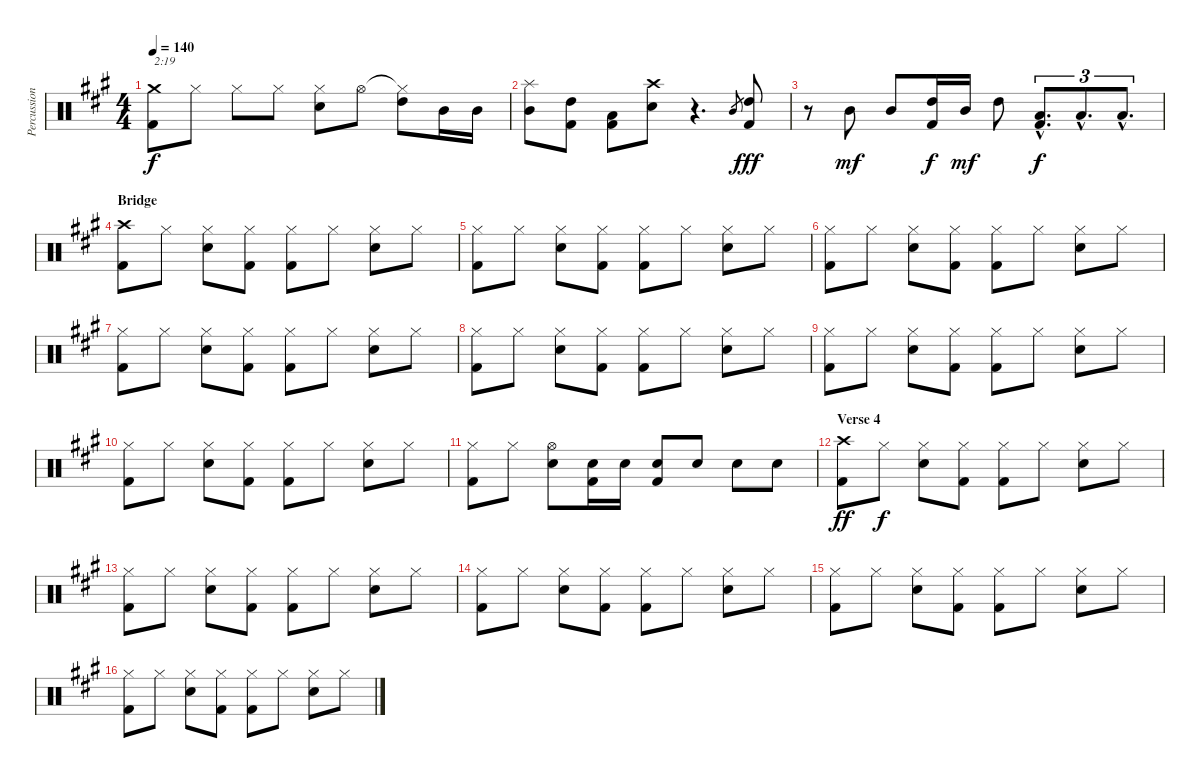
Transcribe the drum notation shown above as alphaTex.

\track ("Percussion" "Percussion") {instrument percussion}
\staff {score}
\articulation defaults
\ts (4 4)
\tempo 140
\clef neutral
\ks a
("Crash medium (hit)" "Kick (hit) 2").8{txt "2:19" dy f} "Hi-Hat (closed)".8 "Hi-Hat (closed)".8 "Hi-Hat (closed)".8 ("Hi-Hat (closed)" "Electric Snare (hit)").8 "Hi-Hat (open)".8 ("Hi-Hat (closed)"{t} "High Tom (hit)").8 "Mid Tom (hit)".16 "Mid Tom (hit)".16 |
("Splash (hit)" "Mid Tom (hit)").8 ("High Tom (hit)" "Kick (hit) 2").8 ("Low Tom (hit)" "Kick (hit) 2").8 ("Crash high (hit)" "Electric Snare (hit)").8 r.4{d} "Mid Tom (hit)".8{gr} ("High Tom (hit)" "Kick (hit) 2").8{dy fff} |
r.8 "Mid Tom (hit)".8{dy mf} "Mid Tom (hit)".8 ("High Tom (hit)" "Kick (hit) 2").16{dy f} "Mid Tom (hit)".16{dy mf} "High Tom (hit)".8 ("Low Tom (hit)"{hac} "Kick (hit) 2"{hac}).8{d tu (3 2) dy f} "Low Tom (hit)"{hac}.8{d tu (3 2)} "Low Floor Tom (hit)"{hac}.8{d tu (3 2)} |
\section ("" "Bridge")
("Crash high (hit)" "Kick (hit) 2").8 "Hi-Hat (closed)".8 ("Hi-Hat (closed)" "Electric Snare (hit)").8 ("Hi-Hat (closed)" "Kick (hit) 2").8 ("Hi-Hat (closed)" "Kick (hit) 2").8 "Hi-Hat (closed)".8 ("Hi-Hat (closed)" "Electric Snare (hit)").8 "Hi-Hat (closed)".8 |
("Hi-Hat (closed)" "Kick (hit) 2").8 "Hi-Hat (closed)".8 ("Hi-Hat (closed)" "Electric Snare (hit)").8 ("Hi-Hat (closed)" "Kick (hit) 2").8 ("Hi-Hat (closed)" "Kick (hit) 2").8 "Hi-Hat (closed)".8 ("Hi-Hat (closed)" "Electric Snare (hit)").8 "Hi-Hat (closed)".8 |
("Hi-Hat (closed)" "Kick (hit) 2").8 "Hi-Hat (closed)".8 ("Hi-Hat (closed)" "Electric Snare (hit)").8 ("Hi-Hat (closed)" "Kick (hit) 2").8 ("Hi-Hat (closed)" "Kick (hit) 2").8 "Hi-Hat (closed)".8 ("Hi-Hat (closed)" "Electric Snare (hit)").8 "Hi-Hat (closed)".8 |
("Hi-Hat (closed)" "Kick (hit) 2").8 "Hi-Hat (closed)".8 ("Hi-Hat (closed)" "Electric Snare (hit)").8 ("Hi-Hat (closed)" "Kick (hit) 2").8 ("Hi-Hat (closed)" "Kick (hit) 2").8 "Hi-Hat (closed)".8 ("Hi-Hat (closed)" "Electric Snare (hit)").8 "Hi-Hat (closed)".8 |
("Hi-Hat (closed)" "Kick (hit) 2").8 "Hi-Hat (closed)".8 ("Hi-Hat (closed)" "Electric Snare (hit)").8 ("Hi-Hat (closed)" "Kick (hit) 2").8 ("Hi-Hat (closed)" "Kick (hit) 2").8 "Hi-Hat (closed)".8 ("Hi-Hat (closed)" "Electric Snare (hit)").8 "Hi-Hat (closed)".8 |
("Hi-Hat (closed)" "Kick (hit) 2").8 "Hi-Hat (closed)".8 ("Hi-Hat (closed)" "Electric Snare (hit)").8 ("Hi-Hat (closed)" "Kick (hit) 2").8 ("Hi-Hat (closed)" "Kick (hit) 2").8 "Hi-Hat (closed)".8 ("Hi-Hat (closed)" "Electric Snare (hit)").8 "Hi-Hat (closed)".8 |
("Hi-Hat (closed)" "Kick (hit) 2").8 "Hi-Hat (closed)".8 ("Hi-Hat (closed)" "Electric Snare (hit)").8 ("Hi-Hat (closed)" "Kick (hit) 2").8 ("Hi-Hat (closed)" "Kick (hit) 2").8 "Hi-Hat (closed)".8 ("Hi-Hat (closed)" "Electric Snare (hit)").8 "Hi-Hat (closed)".8 |
("Hi-Hat (closed)" "Kick (hit) 2").8 "Hi-Hat (closed)".8 ("Hi-Hat (open)" "Electric Snare (hit)").8 ("Electric Snare (hit)" "Kick (hit) 2").16 "Electric Snare (hit)".16 ("Electric Snare (hit)" "Kick (hit) 2").8 "Electric Snare (hit)".8 "Electric Snare (hit)".8 "Electric Snare (hit)".8 |
\section ("" "Verse 4")
("Crash high (hit)" "Kick (hit) 2").8{dy ff} "Hi-Hat (closed)".8{dy f} ("Hi-Hat (closed)" "Electric Snare (hit)").8 ("Hi-Hat (closed)" "Kick (hit) 2").8 ("Hi-Hat (closed)" "Kick (hit) 2").8 "Hi-Hat (closed)".8 ("Hi-Hat (closed)" "Electric Snare (hit)").8 "Hi-Hat (closed)".8 |
("Hi-Hat (closed)" "Kick (hit) 2").8 "Hi-Hat (closed)".8 ("Hi-Hat (closed)" "Electric Snare (hit)").8 ("Hi-Hat (closed)" "Kick (hit) 2").8 ("Hi-Hat (closed)" "Kick (hit) 2").8 "Hi-Hat (closed)".8 ("Hi-Hat (closed)" "Electric Snare (hit)").8 "Hi-Hat (closed)".8 |
("Hi-Hat (closed)" "Kick (hit) 2").8 "Hi-Hat (closed)".8 ("Hi-Hat (closed)" "Electric Snare (hit)").8 ("Hi-Hat (closed)" "Kick (hit) 2").8 ("Hi-Hat (closed)" "Kick (hit) 2").8 "Hi-Hat (closed)".8 ("Hi-Hat (closed)" "Electric Snare (hit)").8 "Hi-Hat (closed)".8 |
("Hi-Hat (closed)" "Kick (hit) 2").8 "Hi-Hat (closed)".8 ("Hi-Hat (closed)" "Electric Snare (hit)").8 ("Hi-Hat (closed)" "Kick (hit) 2").8 ("Hi-Hat (closed)" "Kick (hit) 2").8 "Hi-Hat (closed)".8 ("Hi-Hat (closed)" "Electric Snare (hit)").8 "Hi-Hat (closed)".8 |
("Hi-Hat (closed)" "Kick (hit) 2").8 "Hi-Hat (closed)".8 ("Hi-Hat (closed)" "Electric Snare (hit)").8 ("Hi-Hat (closed)" "Kick (hit) 2").8 ("Hi-Hat (closed)" "Kick (hit) 2").8 "Hi-Hat (closed)".8 ("Hi-Hat (closed)" "Electric Snare (hit)").8 "Hi-Hat (closed)".8
